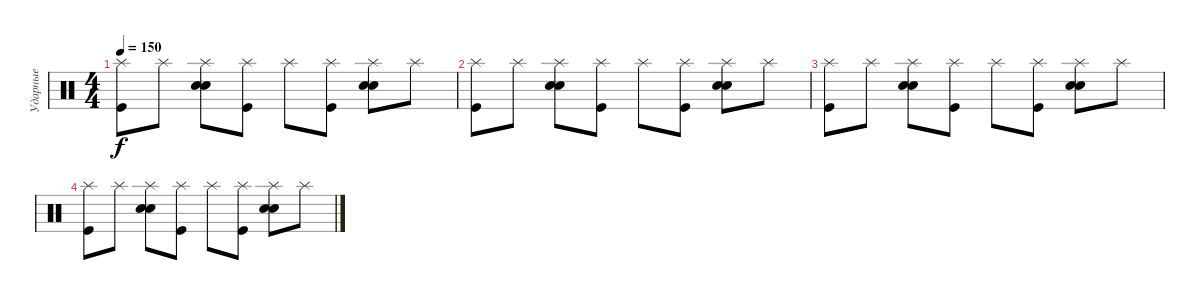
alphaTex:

\track ("Ударные" "Ударные") {instrument percussion}
\staff {score}
\articulation defaults
\ts (4 4)
\tempo 150
\clef neutral
\ks c
("Splash (hit)" "Kick (hit)").8{dy f} "Splash (hit)".8 ("Splash (hit)" "Electric Snare (hit)" "Snare (hit) 2").8 ("Splash (hit)" "Kick (hit)").8 "Splash (hit)".8 ("Splash (hit)" "Kick (hit)").8 ("Splash (hit)" "Electric Snare (hit)" "Snare (hit) 2").8 "Splash (hit)".8 |
("Splash (hit)" "Kick (hit)").8 "Splash (hit)".8 ("Splash (hit)" "Electric Snare (hit)" "Snare (hit) 2").8 ("Splash (hit)" "Kick (hit)").8 "Splash (hit)".8 ("Splash (hit)" "Kick (hit)").8 ("Splash (hit)" "Electric Snare (hit)" "Snare (hit) 2").8 "Splash (hit)".8 |
("Splash (hit)" "Kick (hit)").8 "Splash (hit)".8 ("Splash (hit)" "Electric Snare (hit)" "Snare (hit) 2").8 ("Splash (hit)" "Kick (hit)").8 "Splash (hit)".8 ("Splash (hit)" "Kick (hit)").8 ("Splash (hit)" "Electric Snare (hit)" "Snare (hit) 2").8 "Splash (hit)".8 |
("Splash (hit)" "Kick (hit)").8 "Splash (hit)".8 ("Splash (hit)" "Electric Snare (hit)" "Snare (hit) 2").8 ("Splash (hit)" "Kick (hit)").8 "Splash (hit)".8 ("Splash (hit)" "Kick (hit)").8 ("Splash (hit)" "Electric Snare (hit)" "Snare (hit) 2").8 "Splash (hit)".8
